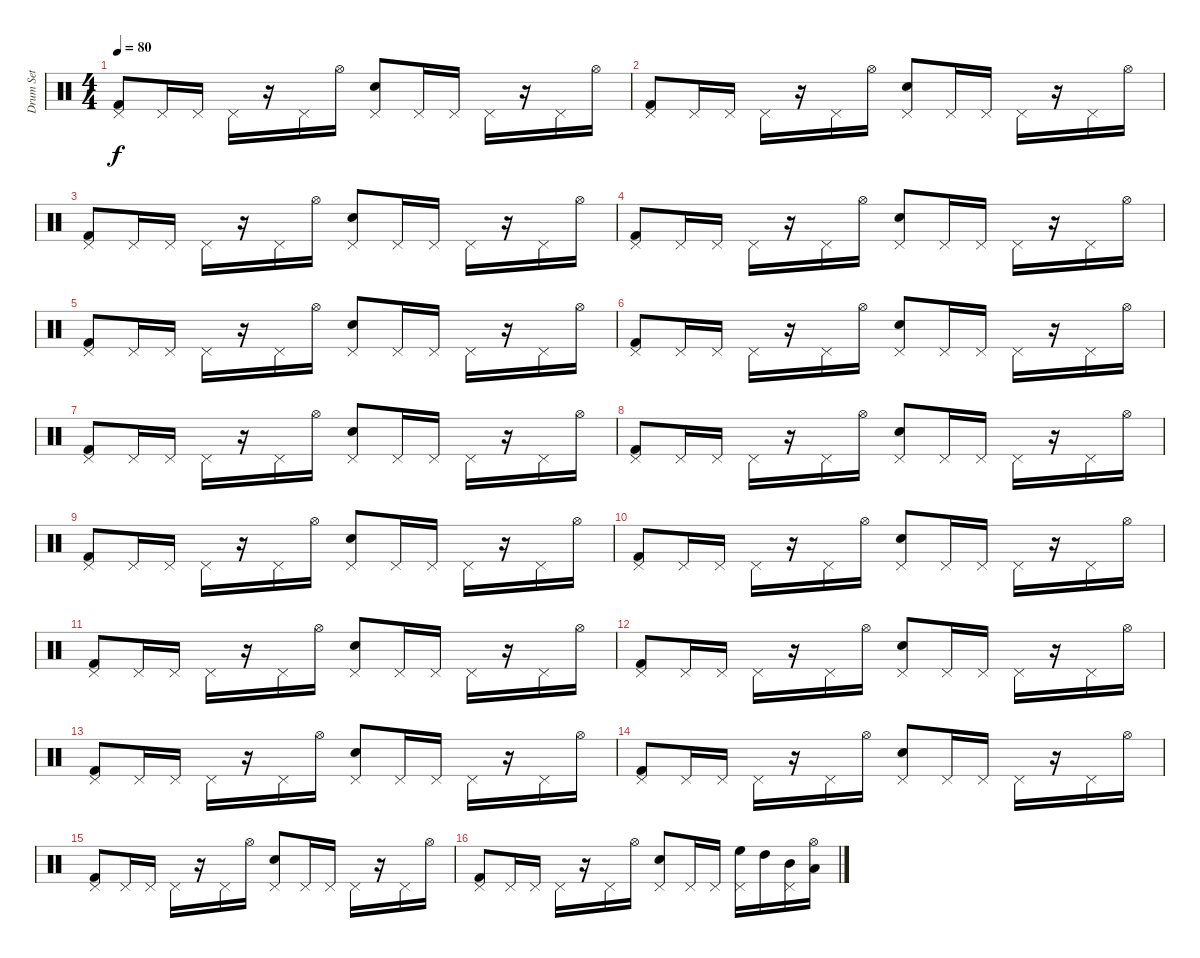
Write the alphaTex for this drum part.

\track ("Drum Set" "Drum Set") {instrument percussion}
\staff {score}
\articulation defaults
\ts (4 4)
\tempo 80
\clef neutral
\ks c
("Pedal Hi-Hat (hit)" "Kick (hit) 2").8{dy f} "Pedal Hi-Hat (hit)".16 "Pedal Hi-Hat (hit)".16 "Pedal Hi-Hat (hit)".16 r.16 "Pedal Hi-Hat (hit)".16 "Hi-Hat (open)".16 ("Pedal Hi-Hat (hit)" "Electric Snare (hit)").8 "Pedal Hi-Hat (hit)".16 "Pedal Hi-Hat (hit)".16 "Pedal Hi-Hat (hit)".16 r.16 "Pedal Hi-Hat (hit)".16 "Hi-Hat (open)".16 |
("Kick (hit) 2" "Pedal Hi-Hat (hit)").8 "Pedal Hi-Hat (hit)".16 "Pedal Hi-Hat (hit)".16 "Pedal Hi-Hat (hit)".16 r.16 "Pedal Hi-Hat (hit)".16 "Hi-Hat (open)".16 ("Electric Snare (hit)" "Pedal Hi-Hat (hit)").8 "Pedal Hi-Hat (hit)".16 "Pedal Hi-Hat (hit)".16 "Pedal Hi-Hat (hit)".16 r.16 "Pedal Hi-Hat (hit)".16 "Hi-Hat (open)".16 |
("Pedal Hi-Hat (hit)" "Kick (hit) 2").8 "Pedal Hi-Hat (hit)".16 "Pedal Hi-Hat (hit)".16 "Pedal Hi-Hat (hit)".16 r.16 "Pedal Hi-Hat (hit)".16 "Hi-Hat (open)".16 ("Pedal Hi-Hat (hit)" "Electric Snare (hit)").8 "Pedal Hi-Hat (hit)".16 "Pedal Hi-Hat (hit)".16 "Pedal Hi-Hat (hit)".16 r.16 "Pedal Hi-Hat (hit)".16 "Hi-Hat (open)".16 |
("Kick (hit) 2" "Pedal Hi-Hat (hit)").8 "Pedal Hi-Hat (hit)".16 "Pedal Hi-Hat (hit)".16 "Pedal Hi-Hat (hit)".16 r.16 "Pedal Hi-Hat (hit)".16 "Hi-Hat (open)".16 ("Electric Snare (hit)" "Pedal Hi-Hat (hit)").8 "Pedal Hi-Hat (hit)".16 "Pedal Hi-Hat (hit)".16 "Pedal Hi-Hat (hit)".16 r.16 "Pedal Hi-Hat (hit)".16 "Hi-Hat (open)".16 |
("Pedal Hi-Hat (hit)" "Kick (hit) 2").8 "Pedal Hi-Hat (hit)".16 "Pedal Hi-Hat (hit)".16 "Pedal Hi-Hat (hit)".16 r.16 "Pedal Hi-Hat (hit)".16 "Hi-Hat (open)".16 ("Pedal Hi-Hat (hit)" "Electric Snare (hit)").8 "Pedal Hi-Hat (hit)".16 "Pedal Hi-Hat (hit)".16 "Pedal Hi-Hat (hit)".16 r.16 "Pedal Hi-Hat (hit)".16 "Hi-Hat (open)".16 |
("Kick (hit) 2" "Pedal Hi-Hat (hit)").8 "Pedal Hi-Hat (hit)".16 "Pedal Hi-Hat (hit)".16 "Pedal Hi-Hat (hit)".16 r.16 "Pedal Hi-Hat (hit)".16 "Hi-Hat (open)".16 ("Electric Snare (hit)" "Pedal Hi-Hat (hit)").8 "Pedal Hi-Hat (hit)".16 "Pedal Hi-Hat (hit)".16 "Pedal Hi-Hat (hit)".16 r.16 "Pedal Hi-Hat (hit)".16 "Hi-Hat (open)".16 |
("Pedal Hi-Hat (hit)" "Kick (hit) 2").8 "Pedal Hi-Hat (hit)".16 "Pedal Hi-Hat (hit)".16 "Pedal Hi-Hat (hit)".16 r.16 "Pedal Hi-Hat (hit)".16 "Hi-Hat (open)".16 ("Pedal Hi-Hat (hit)" "Electric Snare (hit)").8 "Pedal Hi-Hat (hit)".16 "Pedal Hi-Hat (hit)".16 "Pedal Hi-Hat (hit)".16 r.16 "Pedal Hi-Hat (hit)".16 "Hi-Hat (open)".16 |
("Kick (hit) 2" "Pedal Hi-Hat (hit)").8 "Pedal Hi-Hat (hit)".16 "Pedal Hi-Hat (hit)".16 "Pedal Hi-Hat (hit)".16 r.16 "Pedal Hi-Hat (hit)".16 "Hi-Hat (open)".16 ("Electric Snare (hit)" "Pedal Hi-Hat (hit)").8 "Pedal Hi-Hat (hit)".16 "Pedal Hi-Hat (hit)".16 "Pedal Hi-Hat (hit)".16 r.16 "Pedal Hi-Hat (hit)".16 "Hi-Hat (open)".16 |
("Pedal Hi-Hat (hit)" "Kick (hit) 2").8 "Pedal Hi-Hat (hit)".16 "Pedal Hi-Hat (hit)".16 "Pedal Hi-Hat (hit)".16 r.16 "Pedal Hi-Hat (hit)".16 "Hi-Hat (open)".16 ("Pedal Hi-Hat (hit)" "Electric Snare (hit)").8 "Pedal Hi-Hat (hit)".16 "Pedal Hi-Hat (hit)".16 "Pedal Hi-Hat (hit)".16 r.16 "Pedal Hi-Hat (hit)".16 "Hi-Hat (open)".16 |
("Kick (hit) 2" "Pedal Hi-Hat (hit)").8 "Pedal Hi-Hat (hit)".16 "Pedal Hi-Hat (hit)".16 "Pedal Hi-Hat (hit)".16 r.16 "Pedal Hi-Hat (hit)".16 "Hi-Hat (open)".16 ("Electric Snare (hit)" "Pedal Hi-Hat (hit)").8 "Pedal Hi-Hat (hit)".16 "Pedal Hi-Hat (hit)".16 "Pedal Hi-Hat (hit)".16 r.16 "Pedal Hi-Hat (hit)".16 "Hi-Hat (open)".16 |
("Pedal Hi-Hat (hit)" "Kick (hit) 2").8 "Pedal Hi-Hat (hit)".16 "Pedal Hi-Hat (hit)".16 "Pedal Hi-Hat (hit)".16 r.16 "Pedal Hi-Hat (hit)".16 "Hi-Hat (open)".16 ("Pedal Hi-Hat (hit)" "Electric Snare (hit)").8 "Pedal Hi-Hat (hit)".16 "Pedal Hi-Hat (hit)".16 "Pedal Hi-Hat (hit)".16 r.16 "Pedal Hi-Hat (hit)".16 "Hi-Hat (open)".16 |
("Kick (hit) 2" "Pedal Hi-Hat (hit)").8 "Pedal Hi-Hat (hit)".16 "Pedal Hi-Hat (hit)".16 "Pedal Hi-Hat (hit)".16 r.16 "Pedal Hi-Hat (hit)".16 "Hi-Hat (open)".16 ("Electric Snare (hit)" "Pedal Hi-Hat (hit)").8 "Pedal Hi-Hat (hit)".16 "Pedal Hi-Hat (hit)".16 "Pedal Hi-Hat (hit)".16 r.16 "Pedal Hi-Hat (hit)".16 "Hi-Hat (open)".16 |
("Pedal Hi-Hat (hit)" "Kick (hit) 2").8 "Pedal Hi-Hat (hit)".16 "Pedal Hi-Hat (hit)".16 "Pedal Hi-Hat (hit)".16 r.16 "Pedal Hi-Hat (hit)".16 "Hi-Hat (open)".16 ("Pedal Hi-Hat (hit)" "Electric Snare (hit)").8 "Pedal Hi-Hat (hit)".16 "Pedal Hi-Hat (hit)".16 "Pedal Hi-Hat (hit)".16 r.16 "Pedal Hi-Hat (hit)".16 "Hi-Hat (open)".16 |
("Pedal Hi-Hat (hit)" "Kick (hit) 2").8 "Pedal Hi-Hat (hit)".16 "Pedal Hi-Hat (hit)".16 "Pedal Hi-Hat (hit)".16 r.16 "Pedal Hi-Hat (hit)".16 "Hi-Hat (open)".16 ("Pedal Hi-Hat (hit)" "Electric Snare (hit)").8 "Pedal Hi-Hat (hit)".16 "Pedal Hi-Hat (hit)".16 "Pedal Hi-Hat (hit)".16 r.16 "Pedal Hi-Hat (hit)".16 "Hi-Hat (open)".16 |
("Kick (hit) 2" "Pedal Hi-Hat (hit)").8 "Pedal Hi-Hat (hit)".16 "Pedal Hi-Hat (hit)".16 "Pedal Hi-Hat (hit)".16 r.16 "Pedal Hi-Hat (hit)".16 "Hi-Hat (open)".16 ("Electric Snare (hit)" "Pedal Hi-Hat (hit)").8 "Pedal Hi-Hat (hit)".16 "Pedal Hi-Hat (hit)".16 "Pedal Hi-Hat (hit)".16 r.16 "Pedal Hi-Hat (hit)".16 "Hi-Hat (open)".16 |
("Pedal Hi-Hat (hit)" "Kick (hit) 2").8 "Pedal Hi-Hat (hit)".16 "Pedal Hi-Hat (hit)".16 "Pedal Hi-Hat (hit)".16 r.16 "Pedal Hi-Hat (hit)".16 "Hi-Hat (open)".16 ("Pedal Hi-Hat (hit)" "Electric Snare (hit)").8 "Pedal Hi-Hat (hit)".16 "Pedal Hi-Hat (hit)".16 ("Pedal Hi-Hat (hit)" "High Floor Tom (hit)").16 "High Tom (hit)".16 ("Pedal Hi-Hat (hit)" "Mid Tom (hit)").16 ("Hi-Hat (open)" "Low Tom (hit)").16
